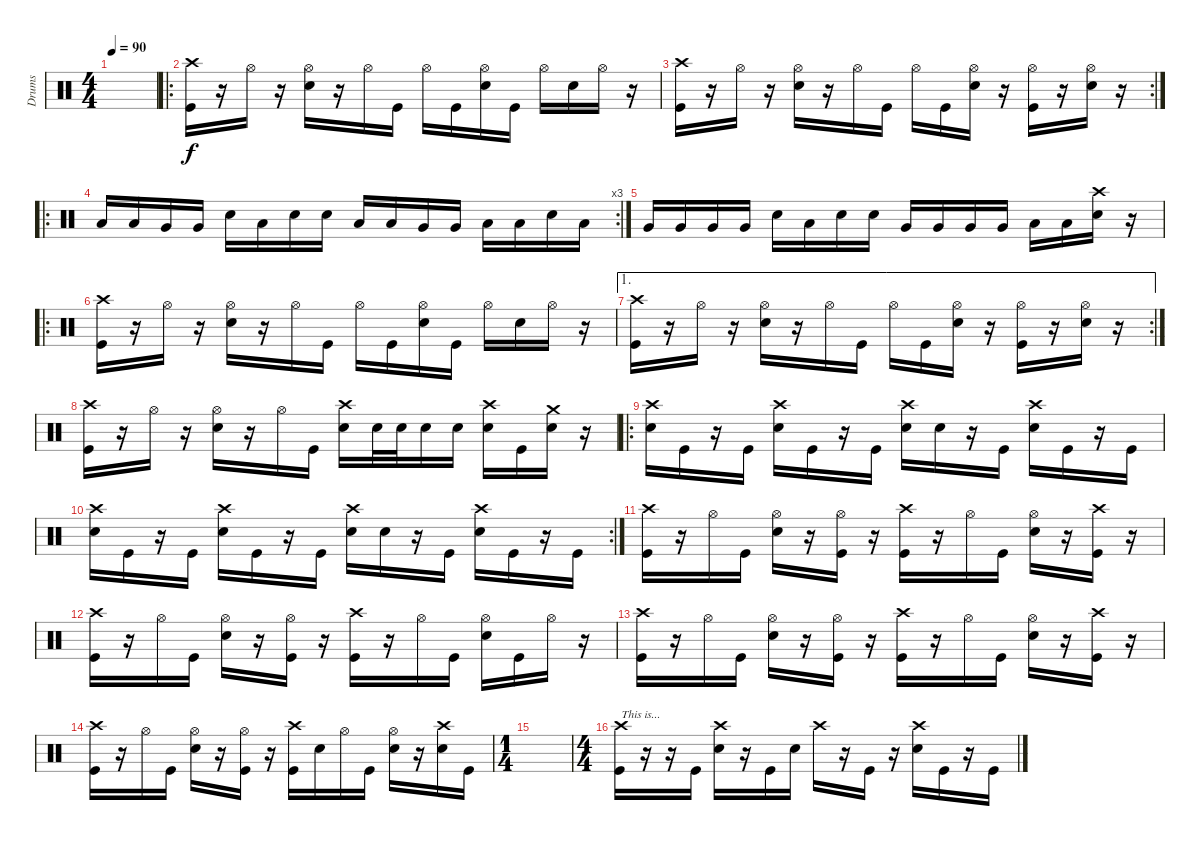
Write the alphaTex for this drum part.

\track ("Drums" "Drums") {instrument percussion}
\staff {score}
\articulation defaults
\ts (4 4)
\tempo 90
\clef neutral
\ks c
|
\ro
("Crash high (hit)" "Kick (hit)").16 r.16 "Hi-Hat (open)".16 r.16 ("Hi-Hat (open)" "Snare (hit) 2").16 r.16 "Hi-Hat (open)".16 "Kick (hit)".16 "Hi-Hat (open)".16 "Kick (hit)".16 ("Hi-Hat (open)" "Snare (hit) 2").16 "Kick (hit)".16 "Hi-Hat (open)".16 "Snare (hit) 2".16 "Hi-Hat (open)".16 r.16 |
\rc 2
("Crash high (hit)" "Kick (hit)").16 r.16 "Hi-Hat (open)".16 r.16 ("Hi-Hat (open)" "Snare (hit) 2").16 r.16 "Hi-Hat (open)".16 "Kick (hit)".16 "Hi-Hat (open)".16 "Kick (hit)".16 ("Hi-Hat (open)" "Snare (hit) 2").16 r.16 ("Hi-Hat (open)" "Kick (hit)").16 r.16 ("Hi-Hat (open)" "Snare (hit) 2").16 r.16 |
\ro
\rc 3 "Low Tom (hit)".16 "Low Tom (hit)".16 "Very Low Tom (hit)".16 "Very Low Tom (hit)".16 "Snare (hit) 2".16 "Low Tom (hit)".16 "Snare (hit) 2".16 "Snare (hit) 2".16 "Low Tom (hit)".16 "Low Tom (hit)".16 "Very Low Tom (hit)".16 "Very Low Tom (hit)".16 "Low Tom (hit)".16 "Low Tom (hit)".16 "Snare (hit) 2".16 "Low Tom (hit)".16
|
"Very Low Tom (hit)".16 "Very Low Tom (hit)".16 "Very Low Tom (hit)".16 "Very Low Tom (hit)".16 "Snare (hit) 2".16 "Low Tom (hit)".16 "Snare (hit) 2".16 "Snare (hit) 2".16 "Very Low Tom (hit)".16 "Very Low Tom (hit)".16 "Very Low Tom (hit)".16 "Very Low Tom (hit)".16 "Low Tom (hit)".16 "Low Tom (hit)".16 ("Crash high (hit)" "Snare (hit) 2").16 r.16 |
\ro
("Crash high (hit)" "Kick (hit)").16 r.16 "Hi-Hat (open)".16 r.16 ("Hi-Hat (open)" "Snare (hit) 2").16 r.16 "Hi-Hat (open)".16 "Kick (hit)".16 "Hi-Hat (open)".16 "Kick (hit)".16 ("Hi-Hat (open)" "Snare (hit) 2").16 "Kick (hit)".16 "Hi-Hat (open)".16 "Snare (hit) 2".16 "Hi-Hat (open)".16 r.16 |
\ae 1
\rc 2
("Crash high (hit)" "Kick (hit)").16 r.16 "Hi-Hat (open)".16 r.16 ("Hi-Hat (open)" "Snare (hit) 2").16 r.16 "Hi-Hat (open)".16 "Kick (hit)".16 "Hi-Hat (open)".16 "Kick (hit)".16 ("Hi-Hat (open)" "Snare (hit) 2").16 r.16 ("Hi-Hat (open)" "Kick (hit)").16 r.16 ("Hi-Hat (open)" "Snare (hit) 2").16 r.16 |
("Crash high (hit)" "Kick (hit)").16 r.16 "Hi-Hat (open)".16 r.16 ("Hi-Hat (open)" "Snare (hit) 2").16 r.16 "Hi-Hat (open)".16 "Kick (hit)".16 ("Crash high (hit)" "Snare (hit) 2").16 "Snare (hit) 2".32 "Snare (hit) 2".32 "Snare (hit) 2".16 "Snare (hit) 2".16 ("Crash high (hit)" "Snare (hit) 2").16 "Kick (hit)".16 ("Crash medium (hit)" "Snare (hit) 2").16 r.16 |
\ro
("Crash high (hit)" "Snare (hit) 2").16 "Kick (hit)".16 r.16 "Kick (hit)".16 ("Crash high (hit)" "Snare (hit) 2").16 "Kick (hit)".16 r.16 "Kick (hit)".16 ("Crash high (hit)" "Snare (hit) 2").16 "Snare (hit) 2".16 r.16 "Kick (hit)".16 ("Crash high (hit)" "Snare (hit) 2").16 "Kick (hit)".16 r.16 "Kick (hit)".16 |
\rc 2
("Crash high (hit)" "Snare (hit) 2").16 "Kick (hit)".16 r.16 "Kick (hit)".16 ("Crash high (hit)" "Snare (hit) 2").16 "Kick (hit)".16 r.16 "Kick (hit)".16 ("Crash high (hit)" "Snare (hit) 2").16 "Snare (hit) 2".16 r.16 "Kick (hit)".16 ("Crash high (hit)" "Snare (hit) 2").16 "Kick (hit)".16 r.16 "Kick (hit)".16 |
("Crash high (hit)" "Kick (hit)").16 r.16 "Hi-Hat (open)".16 "Kick (hit)".16 ("Hi-Hat (open)" "Snare (hit) 2").16 r.16 ("Hi-Hat (open)" "Kick (hit)").16 r.16 ("Crash high (hit)" "Kick (hit)").16 r.16 "Hi-Hat (open)".16 "Kick (hit)".16 ("Hi-Hat (open)" "Snare (hit) 2").16 r.16 ("Crash high (hit)" "Kick (hit)").16 r.16 |
("Crash high (hit)" "Kick (hit)").16 r.16 "Hi-Hat (open)".16 "Kick (hit)".16 ("Hi-Hat (open)" "Snare (hit) 2").16 r.16 ("Hi-Hat (open)" "Kick (hit)").16 r.16 ("Crash high (hit)" "Kick (hit)").16 r.16 "Hi-Hat (open)".16 "Kick (hit)".16 ("Hi-Hat (open)" "Snare (hit) 2").16 "Kick (hit)".16 "Hi-Hat (open)".16 r.16 |
("Crash high (hit)" "Kick (hit)").16 r.16 "Hi-Hat (open)".16 "Kick (hit)".16 ("Hi-Hat (open)" "Snare (hit) 2").16 r.16 ("Hi-Hat (open)" "Kick (hit)").16 r.16 ("Crash high (hit)" "Kick (hit)").16 r.16 "Hi-Hat (open)".16 "Kick (hit)".16 ("Hi-Hat (open)" "Snare (hit) 2").16 r.16 ("Crash high (hit)" "Kick (hit)").16 r.16 |
("Crash high (hit)" "Kick (hit)").16 r.16 "Hi-Hat (open)".16 "Kick (hit)".16 ("Hi-Hat (open)" "Snare (hit) 2").16 r.16 ("Hi-Hat (open)" "Kick (hit)").16 r.16 ("Crash high (hit)" "Kick (hit)").16 "Snare (hit) 2".16 "Hi-Hat (open)".16 "Kick (hit)".16 ("Hi-Hat (open)" "Snare (hit) 2").16 r.16 ("Crash high (hit)" "Snare (hit) 2").16 "Kick (hit)".16 |
\ts (1 4)
|
\ts (4 4)
("Crash high (hit)" "Kick (hit)").16{txt "This is..."} r.16 r.16 "Kick (hit)".16 ("Crash high (hit)" "Snare (hit) 2").16 r.16 "Kick (hit)".16 "Snare (hit) 2".16 "Crash high (hit)".16 r.16 "Kick (hit)".16 r.16 ("Crash high (hit)" "Snare (hit) 2").16 "Kick (hit)".16 r.16 "Kick (hit)".16
